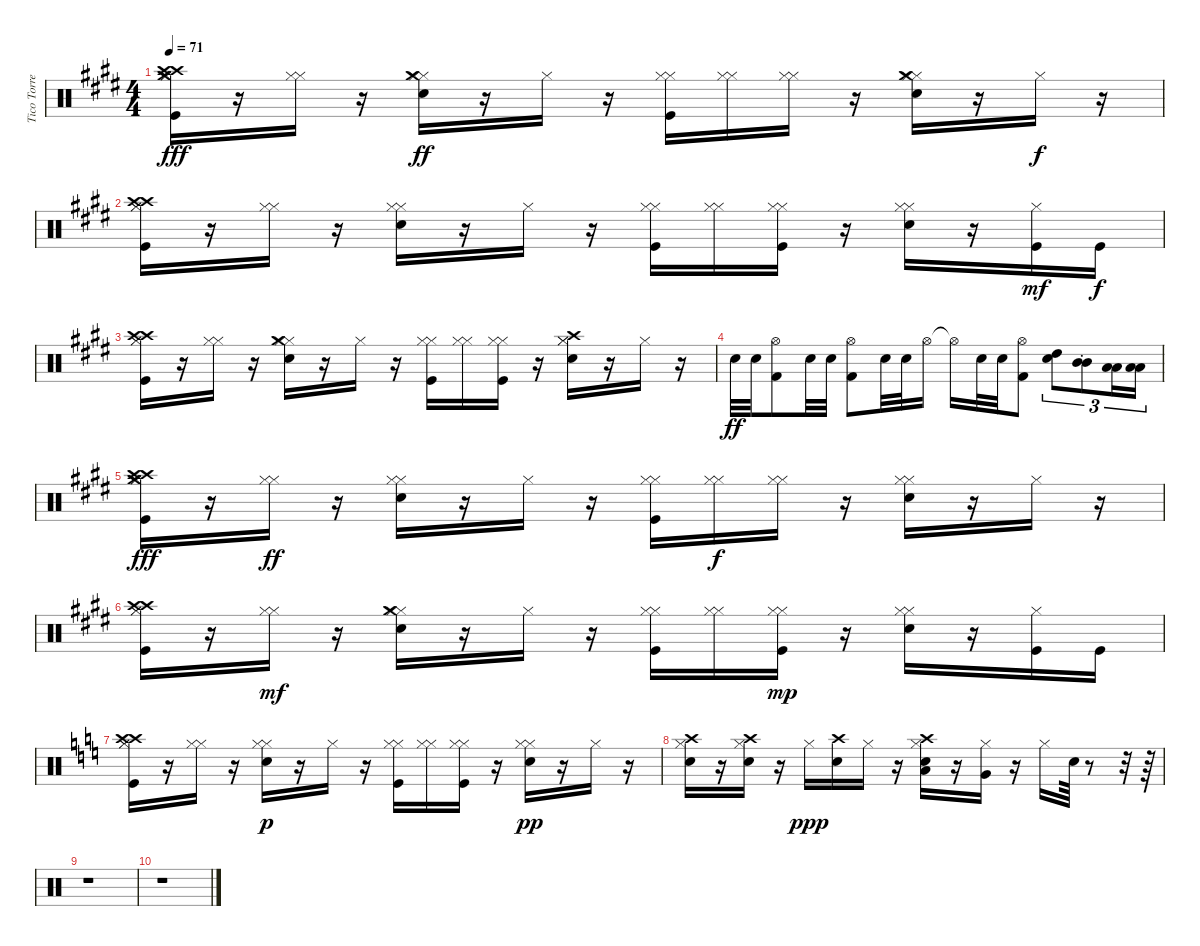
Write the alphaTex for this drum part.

\track ("Tico Torres" "Tico Torre") {instrument percussion}
\staff {score}
\articulation defaults
\ts (4 4)
\tempo 71
\clef neutral
\ks e
("Crash medium (hit)" "Hi-Hat (closed)" "Crash high (hit)" "Hi-Hat (closed)" "Kick (hit)" "Crash high (hit)").16{dy fff} r.16 ("Hi-Hat (closed)" "Hi-Hat (closed)").16 r.16 ("Hi-Hat (closed)" "Hi-Hat (closed)" "Snare (hit) 2" "Crash medium (hit)").16{dy ff} r.16 "Hi-Hat (closed)".16 r.16 ("Hi-Hat (closed)" "Hi-Hat (closed)" "Kick (hit)").16 ("Hi-Hat (closed)" "Hi-Hat (closed)").16 ("Hi-Hat (closed)" "Hi-Hat (closed)").16 r.16 ("Hi-Hat (closed)" "Hi-Hat (closed)" "Snare (hit) 2" "Crash medium (hit)").16 r.16 "Hi-Hat (closed)".16{dy f} r.16 |
("Hi-Hat (closed)" "Crash high (hit)" "Hi-Hat (closed)" "Kick (hit)" "Crash high (hit)").16 r.16 ("Hi-Hat (closed)" "Hi-Hat (closed)").16 r.16 ("Hi-Hat (closed)" "Hi-Hat (closed)" "Snare (hit) 2").16 r.16 "Hi-Hat (closed)".16 r.16 ("Hi-Hat (closed)" "Hi-Hat (closed)" "Kick (hit)").16 ("Hi-Hat (closed)" "Hi-Hat (closed)").16 ("Kick (hit)" "Hi-Hat (closed)" "Hi-Hat (closed)").16 r.16 ("Hi-Hat (closed)" "Hi-Hat (closed)" "Snare (hit) 2").16 r.16 ("Kick (hit)" "Hi-Hat (closed)").16{dy mf} "Kick (hit)".16{dy f} |
("Hi-Hat (closed)" "Crash high (hit)" "Hi-Hat (closed)" "Kick (hit)" "Crash high (hit)").16 r.16 ("Hi-Hat (closed)" "Hi-Hat (closed)").16 r.16 ("Hi-Hat (closed)" "Hi-Hat (closed)" "Snare (hit) 2" "Crash medium (hit)").16 r.16 "Hi-Hat (closed)".16 r.16 ("Hi-Hat (closed)" "Hi-Hat (closed)" "Kick (hit)").16 ("Hi-Hat (closed)" "Hi-Hat (closed)").16 ("Kick (hit)" "Hi-Hat (closed)" "Hi-Hat (closed)").16 r.16 ("Hi-Hat (closed)" "Hi-Hat (closed)" "Snare (hit) 2" "Crash high (hit)").16 r.16 "Hi-Hat (closed)".16 r.16 |
"Snare (hit) 2".32{dy ff} "Snare (hit) 2".32 ("Hi-Hat (open)" "Kick (hit) 2").8 "Snare (hit) 2".32 "Snare (hit) 2".32 ("Hi-Hat (open)" "Kick (hit) 2").8 "Snare (hit) 2".32 "Snare (hit) 2".32 "Hi-Hat (open)".16 "Hi-Hat (open)"{t}.16 "Snare (hit) 2".32 "Snare (hit) 2".32 ("Hi-Hat (open)" "Kick (hit) 2").8 ("High Tom (hit)" "Snare (hit) 2").8{tu (3 2)} ("Mid Tom (hit)" "Mid Tom (hit)"{st}).8{tu (3 2)} ("Low Tom (hit)" "Low Tom (hit)").16{tu (3 2)} ("Low Tom (hit)" "Low Tom (hit)").16{tu (3 2)} |
("Crash medium (hit)" "Hi-Hat (closed)" "Crash high (hit)" "Hi-Hat (closed)" "Kick (hit)" "Crash high (hit)").16{dy fff volume 1} r.16 ("Hi-Hat (closed)" "Hi-Hat (closed)").16{dy ff} r.16 ("Hi-Hat (closed)" "Hi-Hat (closed)" "Snare (hit) 2").16 r.16 "Hi-Hat (closed)".16 r.16 ("Hi-Hat (closed)" "Hi-Hat (closed)" "Kick (hit)").16 ("Hi-Hat (closed)" "Hi-Hat (closed)").16{dy f} ("Hi-Hat (closed)" "Hi-Hat (closed)").16 r.16 ("Hi-Hat (closed)" "Hi-Hat (closed)" "Snare (hit) 2").16 r.16 "Hi-Hat (closed)".16 r.16 |
("Hi-Hat (closed)" "Crash high (hit)" "Hi-Hat (closed)" "Kick (hit)" "Crash high (hit)").16 r.16 ("Hi-Hat (closed)" "Hi-Hat (closed)").16{dy mf} r.16 ("Hi-Hat (closed)" "Hi-Hat (closed)" "Snare (hit) 2" "Crash medium (hit)").16 r.16 "Hi-Hat (closed)".16 r.16 ("Hi-Hat (closed)" "Hi-Hat (closed)" "Kick (hit)").16 ("Hi-Hat (closed)" "Hi-Hat (closed)").16 ("Kick (hit)" "Hi-Hat (closed)" "Hi-Hat (closed)").16{dy mp} r.16 ("Hi-Hat (closed)" "Hi-Hat (closed)" "Snare (hit) 2").16 r.16 ("Kick (hit)" "Hi-Hat (closed)").16 "Kick (hit)".16 |
\ks c
("Hi-Hat (closed)" "Crash high (hit)" "Hi-Hat (closed)" "Kick (hit)" "Crash high (hit)").16 r.16 ("Hi-Hat (closed)" "Hi-Hat (closed)").16 r.16 ("Hi-Hat (closed)" "Hi-Hat (closed)" "Snare (hit) 2").16{dy p} r.16 "Hi-Hat (closed)".16 r.16 ("Hi-Hat (closed)" "Hi-Hat (closed)" "Kick (hit)").16 ("Hi-Hat (closed)" "Hi-Hat (closed)").16 ("Kick (hit)" "Hi-Hat (closed)" "Hi-Hat (closed)").16 r.16 ("Hi-Hat (closed)" "Hi-Hat (closed)" "Snare (hit) 2").16{dy pp} r.16 "Hi-Hat (closed)".16 r.16 |
("Crash high (hit)" "Hi-Hat (closed)" "Snare (hit) 2").16 r.16 ("Hi-Hat (closed)" "Crash high (hit)" "Snare (hit) 2").16 r.16 "Hi-Hat (closed)".16{dy ppp} ("Crash high (hit)" "Snare (hit) 2").16 "Hi-Hat (closed)".16 r.16 ("Crash high (hit)" "Hi-Hat (closed)" "Low Tom (hit)" "Snare (hit) 2").16 r.16 ("Hi-Hat (closed)" "Very Low Tom (hit)").16 r.16 "Hi-Hat (closed)".16 "Snare (hit) 2".64 r.8 r.32 r.64 |
r.1 |
r.1
